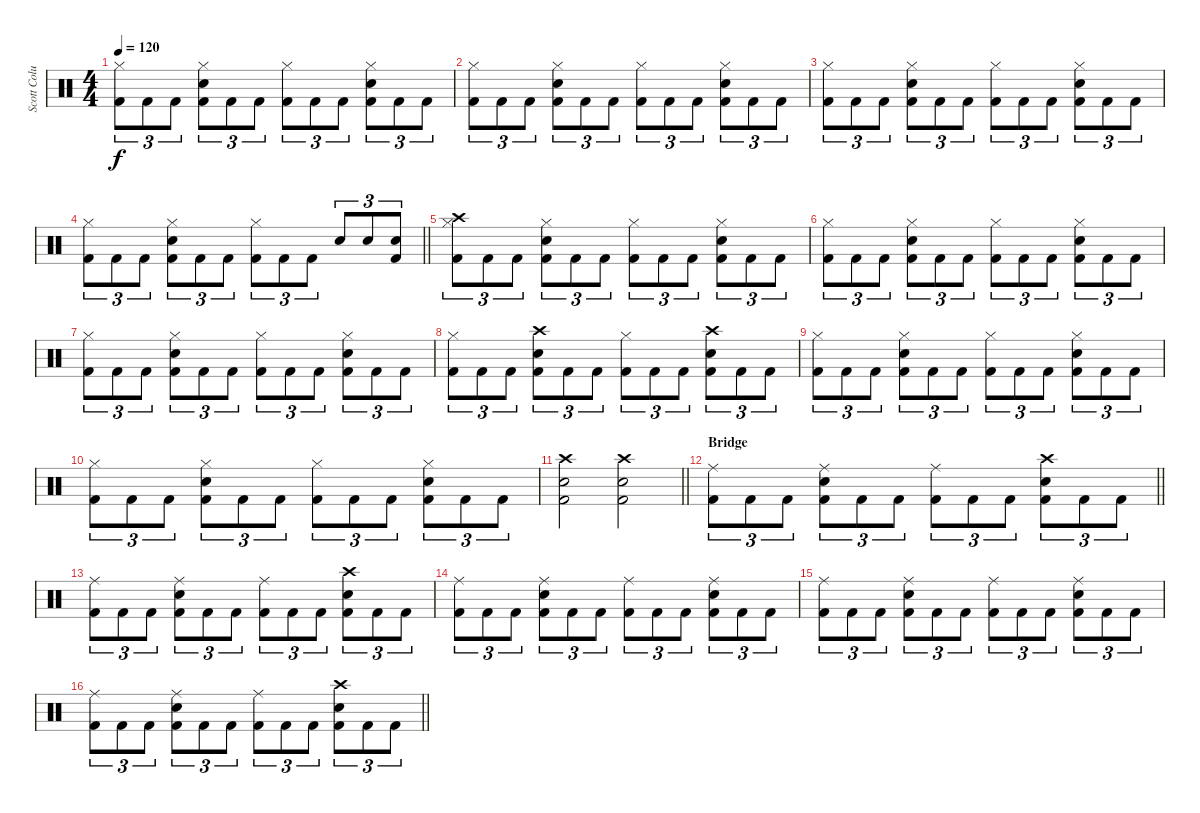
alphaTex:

\track ("Scott Columbus" "Scott Colu") {instrument percussion}
\staff {score}
\articulation defaults
\ts (4 4)
\tempo 120
\clef neutral
\ks c
("Hi-Hat (closed)" "Kick (hit) 2").8{tu (3 2) dy f} "Kick (hit) 2".8{tu (3 2)} "Kick (hit) 2".8{tu (3 2)} ("Hi-Hat (closed)" "Snare (hit) 2" "Kick (hit) 2").8{tu (3 2)} "Kick (hit) 2".8{tu (3 2)} "Kick (hit) 2".8{tu (3 2)} ("Hi-Hat (closed)" "Kick (hit) 2").8{tu (3 2)} "Kick (hit) 2".8{tu (3 2)} "Kick (hit) 2".8{tu (3 2)} ("Hi-Hat (closed)" "Snare (hit) 2" "Kick (hit) 2").8{tu (3 2)} "Kick (hit) 2".8{tu (3 2)} "Kick (hit) 2".8{tu (3 2)} |
("Hi-Hat (closed)" "Kick (hit) 2").8{tu (3 2)} "Kick (hit) 2".8{tu (3 2)} "Kick (hit) 2".8{tu (3 2)} ("Hi-Hat (closed)" "Snare (hit) 2" "Kick (hit) 2").8{tu (3 2)} "Kick (hit) 2".8{tu (3 2)} "Kick (hit) 2".8{tu (3 2)} ("Hi-Hat (closed)" "Kick (hit) 2").8{tu (3 2)} "Kick (hit) 2".8{tu (3 2)} "Kick (hit) 2".8{tu (3 2)} ("Hi-Hat (closed)" "Snare (hit) 2" "Kick (hit) 2").8{tu (3 2)} "Kick (hit) 2".8{tu (3 2)} "Kick (hit) 2".8{tu (3 2)} |
("Hi-Hat (closed)" "Kick (hit) 2").8{tu (3 2)} "Kick (hit) 2".8{tu (3 2)} "Kick (hit) 2".8{tu (3 2)} ("Hi-Hat (closed)" "Snare (hit) 2" "Kick (hit) 2").8{tu (3 2)} "Kick (hit) 2".8{tu (3 2)} "Kick (hit) 2".8{tu (3 2)} ("Hi-Hat (closed)" "Kick (hit) 2").8{tu (3 2)} "Kick (hit) 2".8{tu (3 2)} "Kick (hit) 2".8{tu (3 2)} ("Hi-Hat (closed)" "Snare (hit) 2" "Kick (hit) 2").8{tu (3 2)} "Kick (hit) 2".8{tu (3 2)} "Kick (hit) 2".8{tu (3 2)} |
\barLineRight lightlight
("Hi-Hat (closed)" "Kick (hit) 2").8{tu (3 2)} "Kick (hit) 2".8{tu (3 2)} "Kick (hit) 2".8{tu (3 2)} ("Hi-Hat (closed)" "Snare (hit) 2" "Kick (hit) 2").8{tu (3 2)} "Kick (hit) 2".8{tu (3 2)} "Kick (hit) 2".8{tu (3 2)} ("Hi-Hat (closed)" "Kick (hit) 2").8{tu (3 2)} "Kick (hit) 2".8{tu (3 2)} "Kick (hit) 2".8{tu (3 2)} "Snare (hit) 2".8{tu (3 2)} "Snare (hit) 2".8{tu (3 2)} ("Snare (hit) 2" "Kick (hit) 2").8{tu (3 2)} |
("Crash high (hit)" "Hi-Hat (closed)" "Kick (hit) 2").8{tu (3 2)} "Kick (hit) 2".8{tu (3 2)} "Kick (hit) 2".8{tu (3 2)} ("Hi-Hat (closed)" "Snare (hit) 2" "Kick (hit) 2").8{tu (3 2)} "Kick (hit) 2".8{tu (3 2)} "Kick (hit) 2".8{tu (3 2)} ("Hi-Hat (closed)" "Kick (hit) 2").8{tu (3 2)} "Kick (hit) 2".8{tu (3 2)} "Kick (hit) 2".8{tu (3 2)} ("Hi-Hat (closed)" "Snare (hit) 2" "Kick (hit) 2").8{tu (3 2)} "Kick (hit) 2".8{tu (3 2)} "Kick (hit) 2".8{tu (3 2)} |
("Hi-Hat (closed)" "Kick (hit) 2").8{tu (3 2)} "Kick (hit) 2".8{tu (3 2)} "Kick (hit) 2".8{tu (3 2)} ("Hi-Hat (closed)" "Snare (hit) 2" "Kick (hit) 2").8{tu (3 2)} "Kick (hit) 2".8{tu (3 2)} "Kick (hit) 2".8{tu (3 2)} ("Hi-Hat (closed)" "Kick (hit) 2").8{tu (3 2)} "Kick (hit) 2".8{tu (3 2)} "Kick (hit) 2".8{tu (3 2)} ("Hi-Hat (closed)" "Snare (hit) 2" "Kick (hit) 2").8{tu (3 2)} "Kick (hit) 2".8{tu (3 2)} "Kick (hit) 2".8{tu (3 2)} |
("Hi-Hat (closed)" "Kick (hit) 2").8{tu (3 2)} "Kick (hit) 2".8{tu (3 2)} "Kick (hit) 2".8{tu (3 2)} ("Hi-Hat (closed)" "Snare (hit) 2" "Kick (hit) 2").8{tu (3 2)} "Kick (hit) 2".8{tu (3 2)} "Kick (hit) 2".8{tu (3 2)} ("Hi-Hat (closed)" "Kick (hit) 2").8{tu (3 2)} "Kick (hit) 2".8{tu (3 2)} "Kick (hit) 2".8{tu (3 2)} ("Hi-Hat (closed)" "Snare (hit) 2" "Kick (hit) 2").8{tu (3 2)} "Kick (hit) 2".8{tu (3 2)} "Kick (hit) 2".8{tu (3 2)} |
("Hi-Hat (closed)" "Kick (hit) 2").8{tu (3 2)} "Kick (hit) 2".8{tu (3 2)} "Kick (hit) 2".8{tu (3 2)} ("Crash high (hit)" "Snare (hit) 2" "Kick (hit) 2").8{tu (3 2)} "Kick (hit) 2".8{tu (3 2)} "Kick (hit) 2".8{tu (3 2)} ("Hi-Hat (closed)" "Kick (hit) 2").8{tu (3 2)} "Kick (hit) 2".8{tu (3 2)} "Kick (hit) 2".8{tu (3 2)} ("Crash high (hit)" "Snare (hit) 2" "Kick (hit) 2").8{tu (3 2)} "Kick (hit) 2".8{tu (3 2)} "Kick (hit) 2".8{tu (3 2)} |
("Hi-Hat (closed)" "Kick (hit) 2").8{tu (3 2)} "Kick (hit) 2".8{tu (3 2)} "Kick (hit) 2".8{tu (3 2)} ("Hi-Hat (closed)" "Snare (hit) 2" "Kick (hit) 2").8{tu (3 2)} "Kick (hit) 2".8{tu (3 2)} "Kick (hit) 2".8{tu (3 2)} ("Hi-Hat (closed)" "Kick (hit) 2").8{tu (3 2)} "Kick (hit) 2".8{tu (3 2)} "Kick (hit) 2".8{tu (3 2)} ("Hi-Hat (closed)" "Snare (hit) 2" "Kick (hit) 2").8{tu (3 2)} "Kick (hit) 2".8{tu (3 2)} "Kick (hit) 2".8{tu (3 2)} |
("Hi-Hat (closed)" "Kick (hit) 2").8{tu (3 2)} "Kick (hit) 2".8{tu (3 2)} "Kick (hit) 2".8{tu (3 2)} ("Hi-Hat (closed)" "Snare (hit) 2" "Kick (hit) 2").8{tu (3 2)} "Kick (hit) 2".8{tu (3 2)} "Kick (hit) 2".8{tu (3 2)} ("Hi-Hat (closed)" "Kick (hit) 2").8{tu (3 2)} "Kick (hit) 2".8{tu (3 2)} "Kick (hit) 2".8{tu (3 2)} ("Hi-Hat (closed)" "Snare (hit) 2" "Kick (hit) 2").8{tu (3 2)} "Kick (hit) 2".8{tu (3 2)} "Kick (hit) 2".8{tu (3 2)} |
\barLineRight lightlight
("Crash high (hit)" "Snare (hit) 2" "Kick (hit) 2").2 ("Crash high (hit)" "Snare (hit) 2" "Kick (hit) 2").2 |
\section ("" "Bridge")
\barLineRight lightlight
("Ride (middle)" "Kick (hit) 2").8{tu (3 2)} "Kick (hit) 2".8{tu (3 2)} "Kick (hit) 2".8{tu (3 2)} ("Ride (middle)" "Snare (hit) 2" "Kick (hit) 2").8{tu (3 2)} "Kick (hit) 2".8{tu (3 2)} "Kick (hit) 2".8{tu (3 2)} ("Ride (middle)" "Kick (hit) 2").8{tu (3 2)} "Kick (hit) 2".8{tu (3 2)} "Kick (hit) 2".8{tu (3 2)} ("Crash high (hit)" "Snare (hit) 2" "Kick (hit) 2").8{tu (3 2)} "Kick (hit) 2".8{tu (3 2)} "Kick (hit) 2".8{tu (3 2)} |
("Ride (middle)" "Kick (hit) 2").8{tu (3 2)} "Kick (hit) 2".8{tu (3 2)} "Kick (hit) 2".8{tu (3 2)} ("Ride (middle)" "Snare (hit) 2" "Kick (hit) 2").8{tu (3 2)} "Kick (hit) 2".8{tu (3 2)} "Kick (hit) 2".8{tu (3 2)} ("Ride (middle)" "Kick (hit) 2").8{tu (3 2)} "Kick (hit) 2".8{tu (3 2)} "Kick (hit) 2".8{tu (3 2)} ("Crash high (hit)" "Snare (hit) 2" "Kick (hit) 2").8{tu (3 2)} "Kick (hit) 2".8{tu (3 2)} "Kick (hit) 2".8{tu (3 2)} |
("Ride (middle)" "Kick (hit) 2").8{tu (3 2)} "Kick (hit) 2".8{tu (3 2)} "Kick (hit) 2".8{tu (3 2)} ("Ride (middle)" "Snare (hit) 2" "Kick (hit) 2").8{tu (3 2)} "Kick (hit) 2".8{tu (3 2)} "Kick (hit) 2".8{tu (3 2)} ("Ride (middle)" "Kick (hit) 2").8{tu (3 2)} "Kick (hit) 2".8{tu (3 2)} "Kick (hit) 2".8{tu (3 2)} ("Ride (middle)" "Snare (hit) 2" "Kick (hit) 2").8{tu (3 2)} "Kick (hit) 2".8{tu (3 2)} "Kick (hit) 2".8{tu (3 2)} |
("Ride (middle)" "Kick (hit) 2").8{tu (3 2)} "Kick (hit) 2".8{tu (3 2)} "Kick (hit) 2".8{tu (3 2)} ("Ride (middle)" "Snare (hit) 2" "Kick (hit) 2").8{tu (3 2)} "Kick (hit) 2".8{tu (3 2)} "Kick (hit) 2".8{tu (3 2)} ("Ride (middle)" "Kick (hit) 2").8{tu (3 2)} "Kick (hit) 2".8{tu (3 2)} "Kick (hit) 2".8{tu (3 2)} ("Ride (middle)" "Snare (hit) 2" "Kick (hit) 2").8{tu (3 2)} "Kick (hit) 2".8{tu (3 2)} "Kick (hit) 2".8{tu (3 2)} |
\barLineRight lightlight
("Ride (middle)" "Kick (hit) 2").8{tu (3 2)} "Kick (hit) 2".8{tu (3 2)} "Kick (hit) 2".8{tu (3 2)} ("Ride (middle)" "Snare (hit) 2" "Kick (hit) 2").8{tu (3 2)} "Kick (hit) 2".8{tu (3 2)} "Kick (hit) 2".8{tu (3 2)} ("Ride (middle)" "Kick (hit) 2").8{tu (3 2)} "Kick (hit) 2".8{tu (3 2)} "Kick (hit) 2".8{tu (3 2)} ("Crash high (hit)" "Snare (hit) 2" "Kick (hit) 2").8{tu (3 2)} "Kick (hit) 2".8{tu (3 2)} "Kick (hit) 2".8{tu (3 2)}
